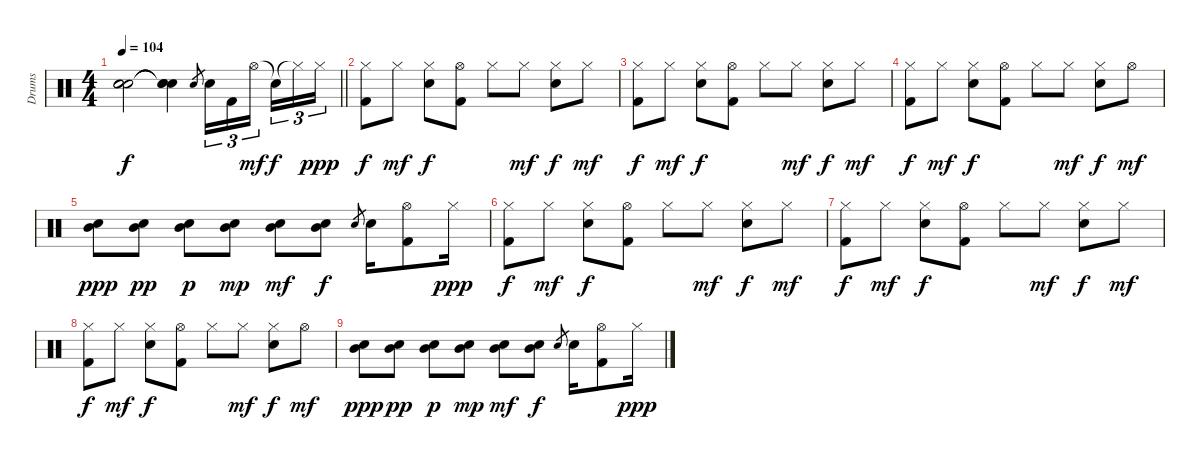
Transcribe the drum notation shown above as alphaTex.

\track ("Drums" "Drums") {instrument percussion}
\staff {score}
\articulation defaults
\ts (4 4)
\tempo 104
\clef neutral
\barLineRight lightlight
\ks c
("Snare (hit)"{t} "Snare (hit)"{t} "Snare (hit)"{t}).2{dy f} ("Snare (hit)"{t} "Snare (hit)"{t} "Snare (hit)"{t}).4 "Electric Snare (hit)".8{gr} "Electric Snare (hit)".16{tu (3 2)} "Kick (hit) 2".16{tu (3 2)} "Hi-Hat (open)".16{tu (3 2) dy mf} "Snare (hit)"{t}.16{tu (3 2) dy f} "Hi-Hat (closed)"{t}.16{tu (3 2)} "Hi-Hat (closed)".16{tu (3 2) dy ppp} |
("Hi-Hat (closed)" "Kick (hit) 2").8{dy f} "Hi-Hat (closed)".8{dy mf} ("Hi-Hat (closed)" "Electric Snare (hit)").8{dy f} ("Hi-Hat (open)" "Kick (hit) 2").8 "Hi-Hat (closed)".8 "Hi-Hat (closed)".8{dy mf} ("Hi-Hat (closed)" "Electric Snare (hit)").8{dy f} "Hi-Hat (closed)".8{dy mf} |
("Hi-Hat (closed)" "Kick (hit) 2").8{dy f} "Hi-Hat (closed)".8{dy mf} ("Hi-Hat (closed)" "Electric Snare (hit)").8{dy f} ("Hi-Hat (open)" "Kick (hit) 2").8 "Hi-Hat (closed)".8 "Hi-Hat (closed)".8{dy mf} ("Hi-Hat (closed)" "Electric Snare (hit)").8{dy f} "Hi-Hat (closed)".8{dy mf} |
("Hi-Hat (closed)" "Kick (hit) 2").8{dy f} "Hi-Hat (closed)".8{dy mf} ("Hi-Hat (closed)" "Electric Snare (hit)").8{dy f} ("Hi-Hat (open)" "Kick (hit) 2").8 "Hi-Hat (closed)".8 "Hi-Hat (closed)".8{dy mf} ("Hi-Hat (closed)" "Electric Snare (hit)").8{dy f} "Hi-Hat (open)".8{dy mf} |
("Mid Tom (hit)" "Electric Snare (hit)").8{dy ppp} ("Mid Tom (hit)" "Electric Snare (hit)").8{dy pp} ("Mid Tom (hit)" "Electric Snare (hit)").8{dy p} ("Mid Tom (hit)" "Electric Snare (hit)").8{dy mp} ("Mid Tom (hit)" "Electric Snare (hit)").8{dy mf} ("Mid Tom (hit)" "Electric Snare (hit)").8{dy f} "Electric Snare (hit)".8{gr} "Electric Snare (hit)".16 ("Hi-Hat (open)" "Kick (hit) 2").8 "Hi-Hat (closed)".16{dy ppp} |
("Hi-Hat (closed)" "Kick (hit) 2").8{dy f} "Hi-Hat (closed)".8{dy mf} ("Hi-Hat (closed)" "Electric Snare (hit)").8{dy f} ("Hi-Hat (open)" "Kick (hit) 2").8 "Hi-Hat (closed)".8 "Hi-Hat (closed)".8{dy mf} ("Hi-Hat (closed)" "Electric Snare (hit)").8{dy f} "Hi-Hat (closed)".8{dy mf} |
("Hi-Hat (closed)" "Kick (hit) 2").8{dy f} "Hi-Hat (closed)".8{dy mf} ("Hi-Hat (closed)" "Electric Snare (hit)").8{dy f} ("Hi-Hat (open)" "Kick (hit) 2").8 "Hi-Hat (closed)".8 "Hi-Hat (closed)".8{dy mf} ("Hi-Hat (closed)" "Electric Snare (hit)").8{dy f} "Hi-Hat (closed)".8{dy mf} |
("Hi-Hat (closed)" "Kick (hit) 2").8{dy f} "Hi-Hat (closed)".8{dy mf} ("Hi-Hat (closed)" "Electric Snare (hit)").8{dy f} ("Hi-Hat (open)" "Kick (hit) 2").8 "Hi-Hat (closed)".8 "Hi-Hat (closed)".8{dy mf} ("Hi-Hat (closed)" "Electric Snare (hit)").8{dy f} "Hi-Hat (open)".8{dy mf} |
("Mid Tom (hit)" "Electric Snare (hit)").8{dy ppp} ("Mid Tom (hit)" "Electric Snare (hit)").8{dy pp} ("Mid Tom (hit)" "Electric Snare (hit)").8{dy p} ("Mid Tom (hit)" "Electric Snare (hit)").8{dy mp} ("Mid Tom (hit)" "Electric Snare (hit)").8{dy mf} ("Mid Tom (hit)" "Electric Snare (hit)").8{dy f} "Electric Snare (hit)".8{gr} "Electric Snare (hit)".16 ("Hi-Hat (open)" "Kick (hit) 2").8 "Hi-Hat (closed)".16{dy ppp}
